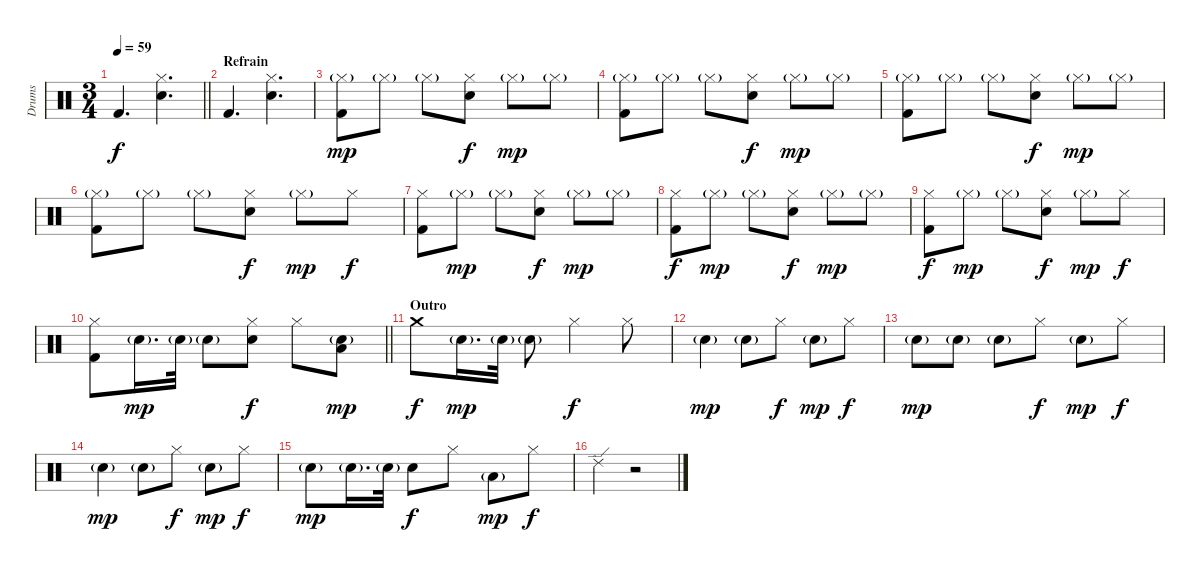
\track ("Drums" "Drums") {instrument percussion}
\staff {score}
\articulation defaults
\ts (3 4)
\tempo 59
\clef neutral
\barLineRight lightlight
\ks c "Kick (hit) 2".4{d dy f}
("Hi-Hat (closed)" "Snare (hit) 2").4{d} |
\section ("" "Refrain")
"Kick (hit) 2".4{d} ("Hi-Hat (closed)" "Snare (hit) 2").4{d} |
("Hi-Hat (closed)"{g} "Kick (hit) 2").8{dy mp} "Hi-Hat (closed)"{g}.8 "Hi-Hat (closed)"{g}.8 ("Hi-Hat (closed)" "Snare (hit) 2").8{dy f} "Hi-Hat (closed)"{g}.8{dy mp} "Hi-Hat (closed)"{g}.8 |
("Hi-Hat (closed)"{g} "Kick (hit) 2").8 "Hi-Hat (closed)"{g}.8 "Hi-Hat (closed)"{g}.8 ("Hi-Hat (closed)" "Snare (hit) 2").8{dy f} "Hi-Hat (closed)"{g}.8{dy mp} "Hi-Hat (closed)"{g}.8 |
("Hi-Hat (closed)"{g} "Kick (hit) 2").8 "Hi-Hat (closed)"{g}.8 "Hi-Hat (closed)"{g}.8 ("Hi-Hat (closed)" "Snare (hit) 2").8{dy f} "Hi-Hat (closed)"{g}.8{dy mp} "Hi-Hat (closed)"{g}.8 |
("Hi-Hat (closed)"{g} "Kick (hit) 2").8 "Hi-Hat (closed)"{g}.8 "Hi-Hat (closed)"{g}.8 ("Hi-Hat (closed)" "Snare (hit) 2").8{dy f} "Hi-Hat (closed)"{g}.8{dy mp} "Hi-Hat (closed)".8{dy f} |
("Hi-Hat (closed)" "Kick (hit) 2").8 "Hi-Hat (closed)"{g}.8{dy mp} "Hi-Hat (closed)"{g}.8 ("Hi-Hat (closed)" "Snare (hit) 2").8{dy f} "Hi-Hat (closed)"{g}.8{dy mp} "Hi-Hat (closed)"{g}.8 |
("Hi-Hat (closed)" "Kick (hit) 2").8{dy f} "Hi-Hat (closed)"{g}.8{dy mp} "Hi-Hat (closed)"{g}.8 ("Hi-Hat (closed)" "Snare (hit) 2").8{dy f} "Hi-Hat (closed)"{g}.8{dy mp} "Hi-Hat (closed)"{g}.8 |
("Hi-Hat (closed)" "Kick (hit) 2").8{dy f} "Hi-Hat (closed)"{g}.8{dy mp} "Hi-Hat (closed)"{g}.8 ("Hi-Hat (closed)" "Snare (hit) 2").8{dy f} "Hi-Hat (closed)"{g}.8{dy mp} "Hi-Hat (closed)".8{dy f} |
\barLineRight lightlight
("Hi-Hat (closed)" "Kick (hit) 2").8 "Snare (hit) 2"{g}.16{d dy mp} "Snare (hit) 2"{g}.32 "Snare (hit) 2"{g}.8 ("Hi-Hat (closed)" "Snare (hit) 2").8{dy f} "Hi-Hat (closed)".8 ("Low Tom (hit)" "Snare (hit) 2"{g}).8{dy mp} |
\section ("" "Outro")
"Crash medium (hit)".8{dy f} "Snare (hit) 2"{g}.16{d dy mp} "Snare (hit) 2"{g}.32 "Snare (hit) 2"{g}.8 "Hi-Hat (closed)".4{dy f} "Hi-Hat (closed)".8 |
"Snare (hit) 2"{g}.4{dy mp} "Snare (hit) 2"{g}.8 "Hi-Hat (closed)".8{dy f} "Snare (hit) 2"{g}.8{dy mp} "Hi-Hat (closed)".8{dy f} |
"Snare (hit) 2"{g}.8{dy mp} "Snare (hit) 2"{g}.8 "Snare (hit) 2"{g}.8 "Hi-Hat (closed)".8{dy f} "Snare (hit) 2"{g}.8{dy mp} "Hi-Hat (closed)".8{dy f} |
"Snare (hit) 2"{g}.4{dy mp} "Snare (hit) 2"{g}.8 "Hi-Hat (closed)".8{dy f} "Snare (hit) 2"{g}.8{dy mp} "Hi-Hat (closed)".8{dy f} |
"Snare (hit) 2"{g}.8{dy mp} "Snare (hit) 2"{g}.16{d} "Snare (hit) 2"{g}.32 "Snare (hit) 2".8{dy f} "Hi-Hat (closed)".8 "Low Tom (hit)"{g}.8{dy mp} "Hi-Hat (closed)".8{dy f} |
"Ride (edge) 2".4 r.2
